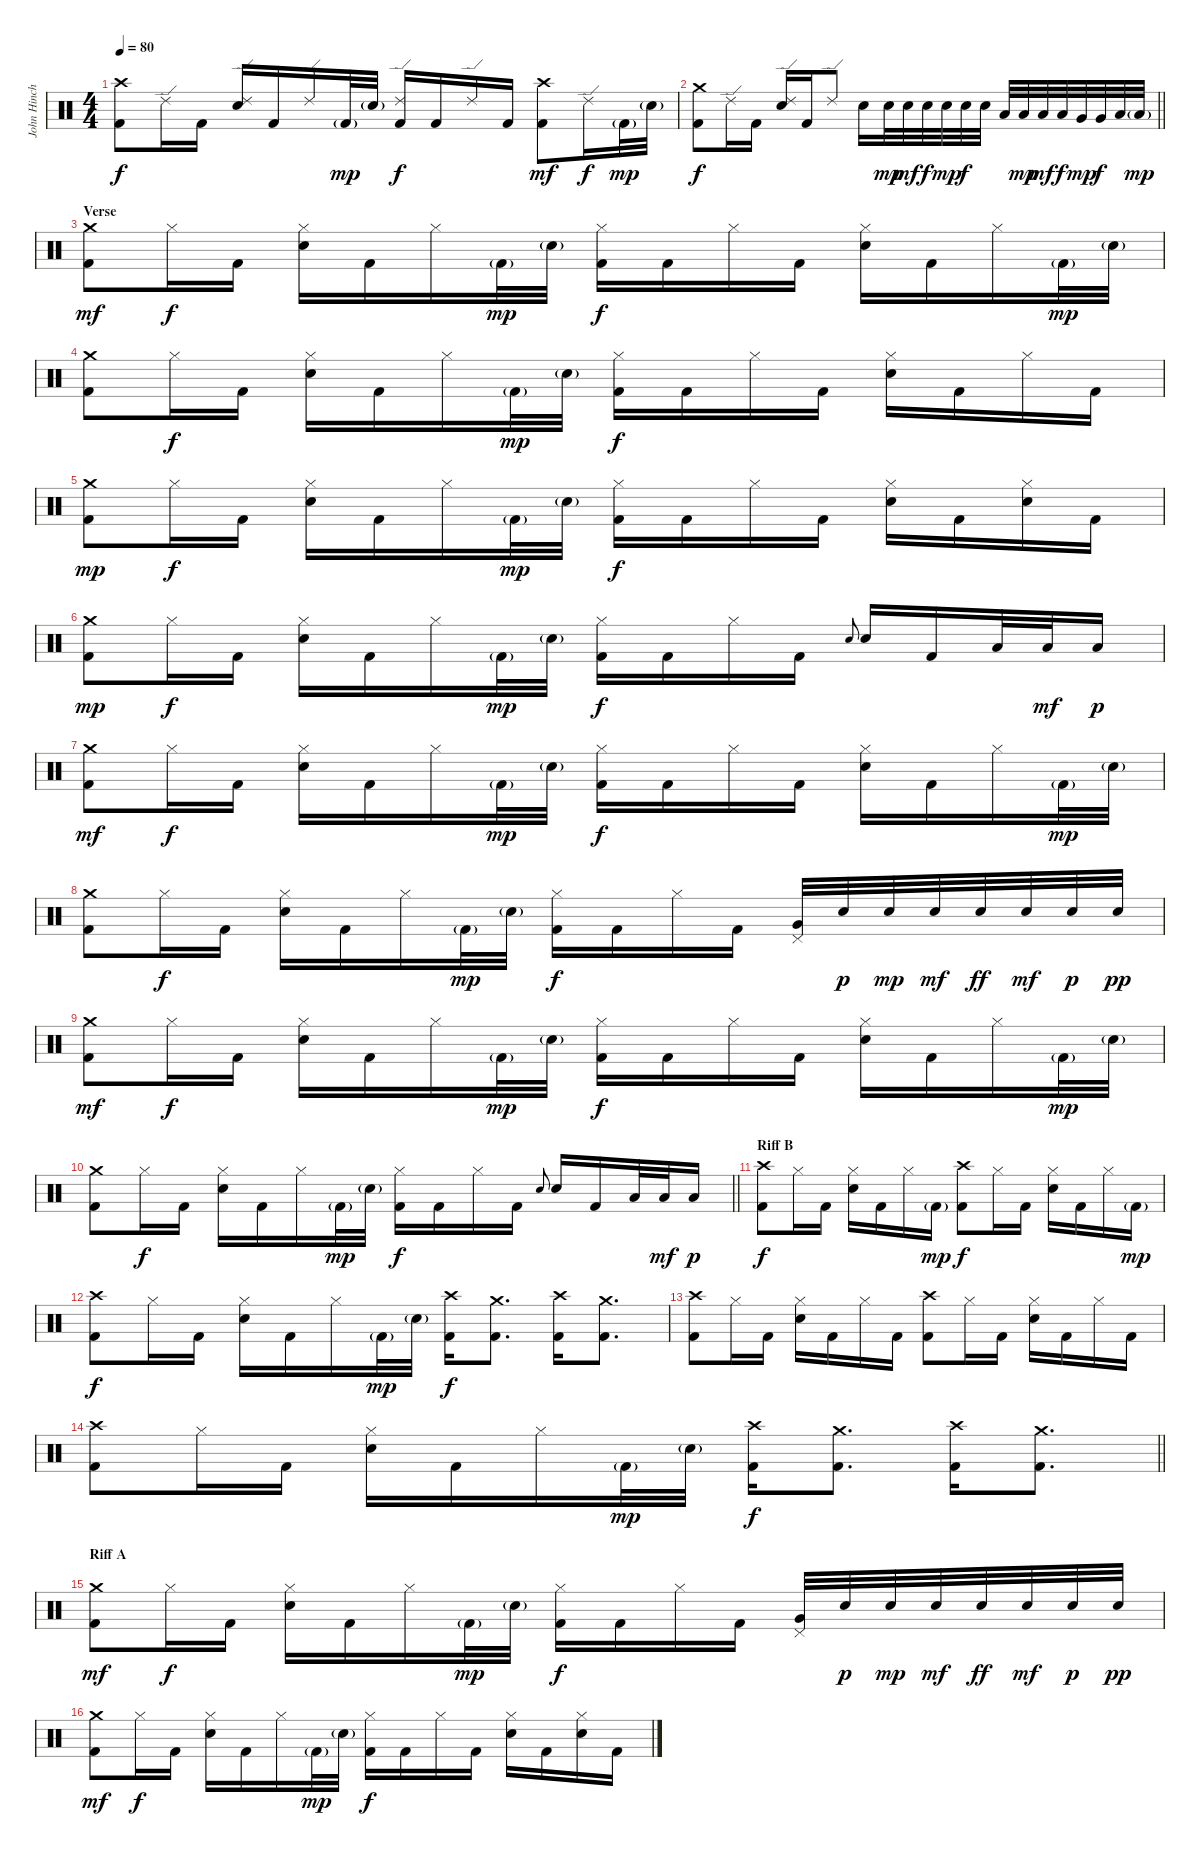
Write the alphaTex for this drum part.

\track ("John Hinch" "John Hinch") {instrument percussion}
\staff {score}
\articulation defaults
\ts (4 4)
\tempo 80
\clef neutral
\ks aminor
("Crash high (hit)" "Kick (hit) 2").8{dy f} "Ride (edge) 2".16 "Kick (hit) 2".16 ("Ride (edge) 2" "Electric Snare (hit)").16 "Kick (hit) 2".16 "Ride (edge) 2".16 "Kick (hit) 2"{g}.32{dy mp} "Electric Snare (hit)"{g}.32 ("Ride (edge) 2" "Kick (hit) 2").16{dy f} "Kick (hit) 2".16 "Ride (edge) 2".16 "Kick (hit) 2".16 ("Crash high (hit)" "Kick (hit) 2").8{dy mf} "Ride (edge) 2".16{dy f} "Kick (hit) 2"{g}.32{dy mp} "Electric Snare (hit)"{g}.32 |
\barLineRight lightlight
("Crash medium (hit)" "Kick (hit) 2").8{dy f} "Ride (edge) 2".16 "Kick (hit) 2".16 ("Ride (edge) 2" "Electric Snare (hit)").16 "Kick (hit) 2".16 "Ride (edge) 2".8 "Electric Snare (hit)".16 "Electric Snare (hit)".32{dy mp} "Electric Snare (hit)".32{dy mf} "Electric Snare (hit)".32{dy f} "Electric Snare (hit)".32{dy mp} "Electric Snare (hit)".32{dy f} "Electric Snare (hit)".32 "Low Tom (hit)".32 "Low Tom (hit)".32{dy mp} "Low Tom (hit)".32{dy mf} "Low Tom (hit)".32{dy f} "Very Low Tom (hit)".32{dy mp} "Very Low Tom (hit)".32{dy f} "Low Floor Tom (hit)".32 "Low Floor Tom (hit)"{g}.32{dy mp} |
\section ("" "Verse")
("Crash medium (hit)" "Kick (hit) 2").8{dy mf} "Hi-Hat (closed)".16{dy f} "Kick (hit) 2".16 ("Hi-Hat (closed)" "Electric Snare (hit)").16 "Kick (hit) 2".16 "Hi-Hat (closed)".16 "Kick (hit) 2"{g}.32{dy mp} "Electric Snare (hit)"{g}.32 ("Hi-Hat (closed)" "Kick (hit) 2").16{dy f} "Kick (hit) 2".16 "Hi-Hat (closed)".16 "Kick (hit) 2".16 ("Hi-Hat (closed)" "Electric Snare (hit)").16 "Kick (hit) 2".16 "Hi-Hat (closed)".16 "Kick (hit) 2"{g}.32{dy mp} "Electric Snare (hit)"{g}.32 |
("Crash medium (hit)" "Kick (hit) 2").8 "Hi-Hat (closed)".16{dy f} "Kick (hit) 2".16 ("Hi-Hat (closed)" "Electric Snare (hit)").16 "Kick (hit) 2".16 "Hi-Hat (closed)".16 "Kick (hit) 2"{g}.32{dy mp} "Electric Snare (hit)"{g}.32 ("Hi-Hat (closed)" "Kick (hit) 2").16{dy f} "Kick (hit) 2".16 "Hi-Hat (closed)".16 "Kick (hit) 2".16 ("Hi-Hat (closed)" "Electric Snare (hit)").16 "Kick (hit) 2".16 "Hi-Hat (closed)".16 "Kick (hit) 2".16 |
("Crash medium (hit)" "Kick (hit) 2").8{dy mp} "Hi-Hat (closed)".16{dy f} "Kick (hit) 2".16 ("Hi-Hat (closed)" "Electric Snare (hit)").16 "Kick (hit) 2".16 "Hi-Hat (closed)".16 "Kick (hit) 2"{g}.32{dy mp} "Electric Snare (hit)"{g}.32 ("Hi-Hat (closed)" "Kick (hit) 2").16{dy f} "Kick (hit) 2".16 "Hi-Hat (closed)".16 "Kick (hit) 2".16 ("Hi-Hat (closed)" "Electric Snare (hit)").16 "Kick (hit) 2".16 ("Hi-Hat (closed)" "Electric Snare (hit)").16 "Kick (hit) 2".16 |
("Crash medium (hit)" "Kick (hit) 2").8{dy mp} "Hi-Hat (closed)".16{dy f} "Kick (hit) 2".16 ("Hi-Hat (closed)" "Electric Snare (hit)").16 "Kick (hit) 2".16 "Hi-Hat (closed)".16 "Kick (hit) 2"{g}.32{dy mp} "Electric Snare (hit)"{g}.32 ("Hi-Hat (closed)" "Kick (hit) 2").16{dy f} "Kick (hit) 2".16 "Hi-Hat (closed)".16 "Kick (hit) 2".16 "Electric Snare (hit)".8{gr onbeat} "Electric Snare (hit)".16 "Kick (hit) 2".16 "Low Tom (hit)".32 "Low Tom (hit)".32{dy mf} "Low Tom (hit)".16{dy p} |
("Crash medium (hit)" "Kick (hit) 2").8{dy mf} "Hi-Hat (closed)".16{dy f} "Kick (hit) 2".16 ("Hi-Hat (closed)" "Electric Snare (hit)").16 "Kick (hit) 2".16 "Hi-Hat (closed)".16 "Kick (hit) 2"{g}.32{dy mp} "Electric Snare (hit)"{g}.32 ("Hi-Hat (closed)" "Kick (hit) 2").16{dy f} "Kick (hit) 2".16 "Hi-Hat (closed)".16 "Kick (hit) 2".16 ("Hi-Hat (closed)" "Electric Snare (hit)").16 "Kick (hit) 2".16 "Hi-Hat (closed)".16 "Kick (hit) 2"{g}.32{dy mp} "Electric Snare (hit)"{g}.32 |
("Crash medium (hit)" "Kick (hit) 2").8 "Hi-Hat (closed)".16{dy f} "Kick (hit) 2".16 ("Hi-Hat (closed)" "Electric Snare (hit)").16 "Kick (hit) 2".16 "Hi-Hat (closed)".16 "Kick (hit) 2"{g}.32{dy mp} "Electric Snare (hit)"{g}.32 ("Hi-Hat (closed)" "Kick (hit) 2").16{dy f} "Kick (hit) 2".16 "Hi-Hat (closed)".16 "Kick (hit) 2".16 ("Pedal Hi-Hat (hit)" "Very Low Tom (hit)").32 "Electric Snare (hit)".32{dy p} "Electric Snare (hit)".32{dy mp} "Electric Snare (hit)".32{dy mf} "Electric Snare (hit)".32{dy ff} "Electric Snare (hit)".32{dy mf} "Electric Snare (hit)".32{dy p} "Electric Snare (hit)".32{dy pp} |
("Crash medium (hit)" "Kick (hit) 2").8{dy mf} "Hi-Hat (closed)".16{dy f} "Kick (hit) 2".16 ("Hi-Hat (closed)" "Electric Snare (hit)").16 "Kick (hit) 2".16 "Hi-Hat (closed)".16 "Kick (hit) 2"{g}.32{dy mp} "Electric Snare (hit)"{g}.32 ("Hi-Hat (closed)" "Kick (hit) 2").16{dy f} "Kick (hit) 2".16 "Hi-Hat (closed)".16 "Kick (hit) 2".16 ("Hi-Hat (closed)" "Electric Snare (hit)").16 "Kick (hit) 2".16 "Hi-Hat (closed)".16 "Kick (hit) 2"{g}.32{dy mp} "Electric Snare (hit)"{g}.32 |
\barLineRight lightlight
("Crash medium (hit)" "Kick (hit) 2").8 "Hi-Hat (closed)".16{dy f} "Kick (hit) 2".16 ("Hi-Hat (closed)" "Electric Snare (hit)").16 "Kick (hit) 2".16 "Hi-Hat (closed)".16 "Kick (hit) 2"{g}.32{dy mp} "Electric Snare (hit)"{g}.32 ("Hi-Hat (closed)" "Kick (hit) 2").16{dy f} "Kick (hit) 2".16 "Hi-Hat (closed)".16 "Kick (hit) 2".16 "Electric Snare (hit)".8{gr onbeat} "Electric Snare (hit)".16 "Kick (hit) 2".16 "Low Tom (hit)".32 "Low Tom (hit)".32{dy mf} "Low Tom (hit)".16{dy p} |
\section ("" "Riff B")
("Crash high (hit)" "Kick (hit) 2").8{dy f} "Hi-Hat (closed)".16 "Kick (hit) 2".16 ("Hi-Hat (closed)" "Electric Snare (hit)").16 "Kick (hit) 2".16 "Hi-Hat (closed)".16 "Kick (hit) 2"{g}.16{dy mp} ("Crash high (hit)" "Kick (hit) 2").8{dy f} "Hi-Hat (closed)".16 "Kick (hit) 2".16 ("Hi-Hat (closed)" "Electric Snare (hit)").16 "Kick (hit) 2".16 "Hi-Hat (closed)".16 "Kick (hit) 2"{g}.16{dy mp} |
("Crash high (hit)" "Kick (hit) 2").8{dy f} "Hi-Hat (closed)".16 "Kick (hit) 2".16 ("Hi-Hat (closed)" "Electric Snare (hit)").16 "Kick (hit) 2".16 "Hi-Hat (closed)".16 "Kick (hit) 2"{g}.32{dy mp} "Electric Snare (hit)"{g}.32 ("Crash high (hit)" "Kick (hit) 2").16{dy f} ("Crash medium (hit)" "Kick (hit) 2").8{d} ("Crash high (hit)" "Kick (hit) 2").16 ("Crash medium (hit)" "Kick (hit) 2").8{d} |
("Crash high (hit)" "Kick (hit) 2").8 "Hi-Hat (closed)".16 "Kick (hit) 2".16 ("Hi-Hat (closed)" "Electric Snare (hit)").16 "Kick (hit) 2".16 "Hi-Hat (closed)".16 "Kick (hit) 2".16 ("Crash high (hit)" "Kick (hit) 2").8 "Hi-Hat (closed)".16 "Kick (hit) 2".16 ("Hi-Hat (closed)" "Electric Snare (hit)").16 "Kick (hit) 2".16 "Hi-Hat (closed)".16 "Kick (hit) 2".16 |
\barLineRight lightlight
("Crash high (hit)" "Kick (hit) 2").8 "Hi-Hat (closed)".16 "Kick (hit) 2".16 ("Hi-Hat (closed)" "Electric Snare (hit)").16 "Kick (hit) 2".16 "Hi-Hat (closed)".16 "Kick (hit) 2"{g}.32{dy mp} "Electric Snare (hit)"{g}.32 ("Crash high (hit)" "Kick (hit) 2").16{dy f} ("Crash medium (hit)" "Kick (hit) 2").8{d} ("Crash high (hit)" "Kick (hit) 2").16 ("Crash medium (hit)" "Kick (hit) 2").8{d} |
\section ("" "Riff A")
("Crash medium (hit)" "Kick (hit) 2").8{dy mf} "Hi-Hat (closed)".16{dy f} "Kick (hit) 2".16 ("Hi-Hat (closed)" "Electric Snare (hit)").16 "Kick (hit) 2".16 "Hi-Hat (closed)".16 "Kick (hit) 2"{g}.32{dy mp} "Electric Snare (hit)"{g}.32 ("Hi-Hat (closed)" "Kick (hit) 2").16{dy f} "Kick (hit) 2".16 "Hi-Hat (closed)".16 "Kick (hit) 2".16 ("Pedal Hi-Hat (hit)" "Very Low Tom (hit)").32 "Electric Snare (hit)".32{dy p} "Electric Snare (hit)".32{dy mp} "Electric Snare (hit)".32{dy mf} "Electric Snare (hit)".32{dy ff} "Electric Snare (hit)".32{dy mf} "Electric Snare (hit)".32{dy p} "Electric Snare (hit)".32{dy pp} |
("Crash medium (hit)" "Kick (hit) 2").8{dy mf} "Hi-Hat (closed)".16{dy f} "Kick (hit) 2".16 ("Hi-Hat (closed)" "Electric Snare (hit)").16 "Kick (hit) 2".16 "Hi-Hat (closed)".16 "Kick (hit) 2"{g}.32{dy mp} "Electric Snare (hit)"{g}.32 ("Hi-Hat (closed)" "Kick (hit) 2").16{dy f} "Kick (hit) 2".16 "Hi-Hat (closed)".16 "Kick (hit) 2".16 ("Hi-Hat (closed)" "Electric Snare (hit)").16 "Kick (hit) 2".16 ("Hi-Hat (closed)" "Electric Snare (hit)").16 "Kick (hit) 2".16
